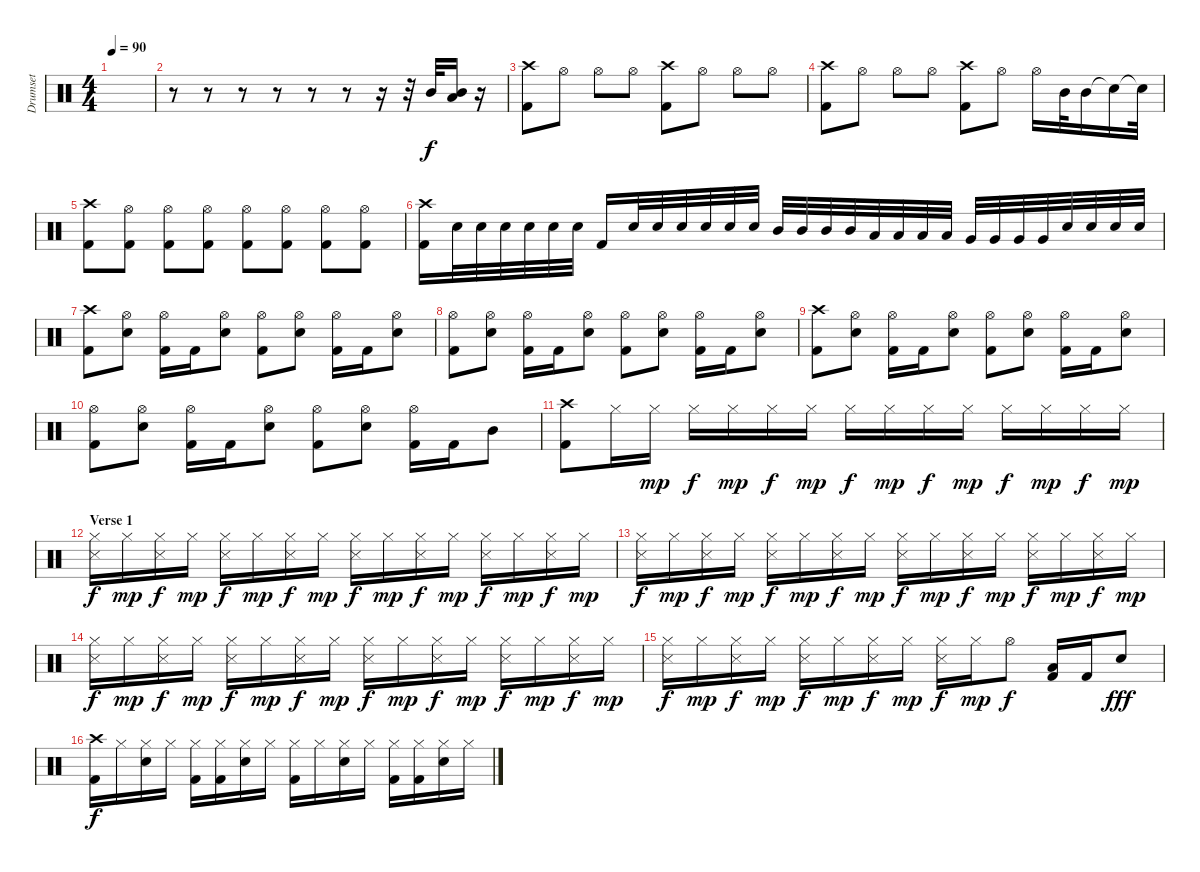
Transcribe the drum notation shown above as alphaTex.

\track ("Drumset" "Drumset") {instrument percussion}
\staff {score}
\articulation defaults
\ts (4 4)
\tempo 90
\clef neutral
\ks c
|
r.8 r.8 r.8 r.8 r.8 r.8 r.16 r.32 "Mid Tom (hit)".32 ("Mid Tom (hit)" "Low Tom (hit)").16{bd 60} r.16 |
("Crash high (hit)" "Kick (hit) 2").8 "Hi-Hat (open)".8 "Hi-Hat (open)".8 "Hi-Hat (open)".8 ("Crash high (hit)" "Kick (hit) 2").8 "Hi-Hat (open)".8 "Hi-Hat (open)".8 "Hi-Hat (open)".8 |
("Crash high (hit)" "Kick (hit) 2").8 "Hi-Hat (open)".8 "Hi-Hat (open)".8 "Hi-Hat (open)".8 ("Crash high (hit)" "Kick (hit) 2").8 "Hi-Hat (open)".8 "Hi-Hat (open)".16 "Mid Tom (hit)".32 "Mid Tom (hit)".16 "Snare (hit)"{t}.16 "Snare (hit)"{t}.32 |
("Crash high (hit)" "Kick (hit) 2").8 ("Hi-Hat (open)" "Kick (hit) 2").8 ("Hi-Hat (open)" "Kick (hit) 2").8 ("Hi-Hat (open)" "Kick (hit) 2").8 ("Hi-Hat (open)" "Kick (hit) 2").8 ("Hi-Hat (open)" "Kick (hit) 2").8 ("Hi-Hat (open)" "Kick (hit) 2").8 ("Hi-Hat (open)" "Kick (hit) 2").8 |
("Crash high (hit)" "Kick (hit) 2").16 "Electric Snare (hit)".32 "Electric Snare (hit)".32 "Electric Snare (hit)".32 "Electric Snare (hit)".32 "Electric Snare (hit)".32 "Electric Snare (hit)".32 "Kick (hit) 2".16 "Electric Snare (hit)".32 "Electric Snare (hit)".32 "Electric Snare (hit)".32 "Electric Snare (hit)".32 "Electric Snare (hit)".32 "Electric Snare (hit)".32 "Mid Tom (hit)".32 "Mid Tom (hit)".32 "Mid Tom (hit)".32 "Mid Tom (hit)".32 "Low Tom (hit)".32 "Low Tom (hit)".32 "Low Tom (hit)".32 "Low Tom (hit)".32 "Very Low Tom (hit)".32 "Very Low Tom (hit)".32 "Very Low Tom (hit)".32 "Very Low Tom (hit)".32 "Electric Snare (hit)".32 "Electric Snare (hit)".32 "Electric Snare (hit)".32 "Electric Snare (hit)".32 |
("Crash high (hit)" "Kick (hit) 2").8 ("Hi-Hat (open)" "Electric Snare (hit)").8 ("Hi-Hat (open)" "Kick (hit) 2").16 "Kick (hit) 2".16 ("Hi-Hat (open)" "Electric Snare (hit)").8 ("Hi-Hat (open)" "Kick (hit) 2").8 ("Hi-Hat (open)" "Electric Snare (hit)").8 ("Hi-Hat (open)" "Kick (hit) 2").16 "Kick (hit) 2".16 ("Hi-Hat (open)" "Electric Snare (hit)").8 |
("Hi-Hat (open)" "Kick (hit) 2").8 ("Hi-Hat (open)" "Electric Snare (hit)").8 ("Hi-Hat (open)" "Kick (hit) 2").16 "Kick (hit) 2".16 ("Hi-Hat (open)" "Electric Snare (hit)").8 ("Hi-Hat (open)" "Kick (hit) 2").8 ("Hi-Hat (open)" "Electric Snare (hit)").8 ("Hi-Hat (open)" "Kick (hit) 2").16 "Kick (hit) 2".16 ("Hi-Hat (open)" "Electric Snare (hit)").8 |
("Crash high (hit)" "Kick (hit) 2").8 ("Hi-Hat (open)" "Electric Snare (hit)").8 ("Hi-Hat (open)" "Kick (hit) 2").16 "Kick (hit) 2".16 ("Hi-Hat (open)" "Electric Snare (hit)").8 ("Hi-Hat (open)" "Kick (hit) 2").8 ("Hi-Hat (open)" "Electric Snare (hit)").8 ("Hi-Hat (open)" "Kick (hit) 2").16 "Kick (hit) 2".16 ("Hi-Hat (open)" "Electric Snare (hit)").8 |
("Hi-Hat (open)" "Kick (hit) 2").8 ("Hi-Hat (open)" "Electric Snare (hit)").8 ("Hi-Hat (open)" "Kick (hit) 2").16 "Kick (hit) 2".16 ("Hi-Hat (open)" "Electric Snare (hit)").8 ("Hi-Hat (open)" "Kick (hit) 2").8 ("Hi-Hat (open)" "Electric Snare (hit)").8 ("Hi-Hat (open)" "Kick (hit) 2").16 "Kick (hit) 2".16 "Mid Tom (hit)".8 |
("Crash high (hit)" "Kick (hit) 2").8 "Hi-Hat (closed)".16 "Hi-Hat (closed)".16{dy mp} "Hi-Hat (closed)".16{dy f} "Hi-Hat (closed)".16{dy mp} "Hi-Hat (closed)".16{dy f} "Hi-Hat (closed)".16{dy mp} "Hi-Hat (closed)".16{dy f} "Hi-Hat (closed)".16{dy mp} "Hi-Hat (closed)".16{dy f} "Hi-Hat (closed)".16{dy mp} "Hi-Hat (closed)".16{dy f} "Hi-Hat (closed)".16{dy mp} "Hi-Hat (closed)".16{dy f} "Hi-Hat (closed)".16{dy mp} |
\section ("" "Verse 1")
("Hi-Hat (closed)" "Snare (side stick) 3").16{dy f} "Hi-Hat (closed)".16{dy mp} ("Hi-Hat (closed)" "Snare (side stick) 3").16{dy f} "Hi-Hat (closed)".16{dy mp} ("Hi-Hat (closed)" "Snare (side stick) 3").16{dy f} "Hi-Hat (closed)".16{dy mp} ("Hi-Hat (closed)" "Snare (side stick) 3").16{dy f} "Hi-Hat (closed)".16{dy mp} ("Hi-Hat (closed)" "Snare (side stick) 3").16{dy f} "Hi-Hat (closed)".16{dy mp} ("Hi-Hat (closed)" "Snare (side stick) 3").16{dy f} "Hi-Hat (closed)".16{dy mp} ("Hi-Hat (closed)" "Snare (side stick) 3").16{dy f} "Hi-Hat (closed)".16{dy mp} ("Hi-Hat (closed)" "Snare (side stick) 3").16{dy f} "Hi-Hat (closed)".16{dy mp} |
("Hi-Hat (closed)" "Snare (side stick) 3").16{dy f} "Hi-Hat (closed)".16{dy mp} ("Hi-Hat (closed)" "Snare (side stick) 3").16{dy f} "Hi-Hat (closed)".16{dy mp} ("Hi-Hat (closed)" "Snare (side stick) 3").16{dy f} "Hi-Hat (closed)".16{dy mp} ("Hi-Hat (closed)" "Snare (side stick) 3").16{dy f} "Hi-Hat (closed)".16{dy mp} ("Hi-Hat (closed)" "Snare (side stick) 3").16{dy f} "Hi-Hat (closed)".16{dy mp} ("Hi-Hat (closed)" "Snare (side stick) 3").16{dy f} "Hi-Hat (closed)".16{dy mp} ("Hi-Hat (closed)" "Snare (side stick) 3").16{dy f} "Hi-Hat (closed)".16{dy mp} ("Hi-Hat (closed)" "Snare (side stick) 3").16{dy f} "Hi-Hat (closed)".16{dy mp} |
("Hi-Hat (closed)" "Snare (side stick) 3").16{dy f} "Hi-Hat (closed)".16{dy mp} ("Hi-Hat (closed)" "Snare (side stick) 3").16{dy f} "Hi-Hat (closed)".16{dy mp} ("Hi-Hat (closed)" "Snare (side stick) 3").16{dy f} "Hi-Hat (closed)".16{dy mp} ("Hi-Hat (closed)" "Snare (side stick) 3").16{dy f} "Hi-Hat (closed)".16{dy mp} ("Hi-Hat (closed)" "Snare (side stick) 3").16{dy f} "Hi-Hat (closed)".16{dy mp} ("Hi-Hat (closed)" "Snare (side stick) 3").16{dy f} "Hi-Hat (closed)".16{dy mp} ("Hi-Hat (closed)" "Snare (side stick) 3").16{dy f} "Hi-Hat (closed)".16{dy mp} ("Hi-Hat (closed)" "Snare (side stick) 3").16{dy f} "Hi-Hat (closed)".16{dy mp} |
("Hi-Hat (closed)" "Snare (side stick) 3").16{dy f} "Hi-Hat (closed)".16{dy mp} ("Hi-Hat (closed)" "Snare (side stick) 3").16{dy f} "Hi-Hat (closed)".16{dy mp} ("Hi-Hat (closed)" "Snare (side stick) 3").16{dy f} "Hi-Hat (closed)".16{dy mp} ("Hi-Hat (closed)" "Snare (side stick) 3").16{dy f} "Hi-Hat (closed)".16{dy mp} ("Hi-Hat (closed)" "Snare (side stick) 3").16{dy f} "Hi-Hat (closed)".16{dy mp} "Hi-Hat (open)".8{dy f} ("Low Tom (hit)" "Kick (hit) 2").16 "Kick (hit) 2".16 "Electric Snare (hit)".8{dy fff} |
("Crash high (hit)" "Kick (hit) 2").16{dy f} "Hi-Hat (closed)".16 ("Hi-Hat (closed)" "Electric Snare (hit)").16 "Hi-Hat (closed)".16 ("Hi-Hat (closed)" "Kick (hit) 2").16 ("Hi-Hat (closed)" "Kick (hit) 2").16 ("Hi-Hat (closed)" "Electric Snare (hit)").16 "Hi-Hat (closed)".16 ("Hi-Hat (closed)" "Kick (hit) 2").16 "Hi-Hat (closed)".16 ("Hi-Hat (closed)" "Electric Snare (hit)").16 "Hi-Hat (closed)".16 ("Hi-Hat (closed)" "Kick (hit) 2").16 ("Hi-Hat (closed)" "Kick (hit) 2").16 ("Hi-Hat (closed)" "Electric Snare (hit)").16 "Hi-Hat (closed)".16
